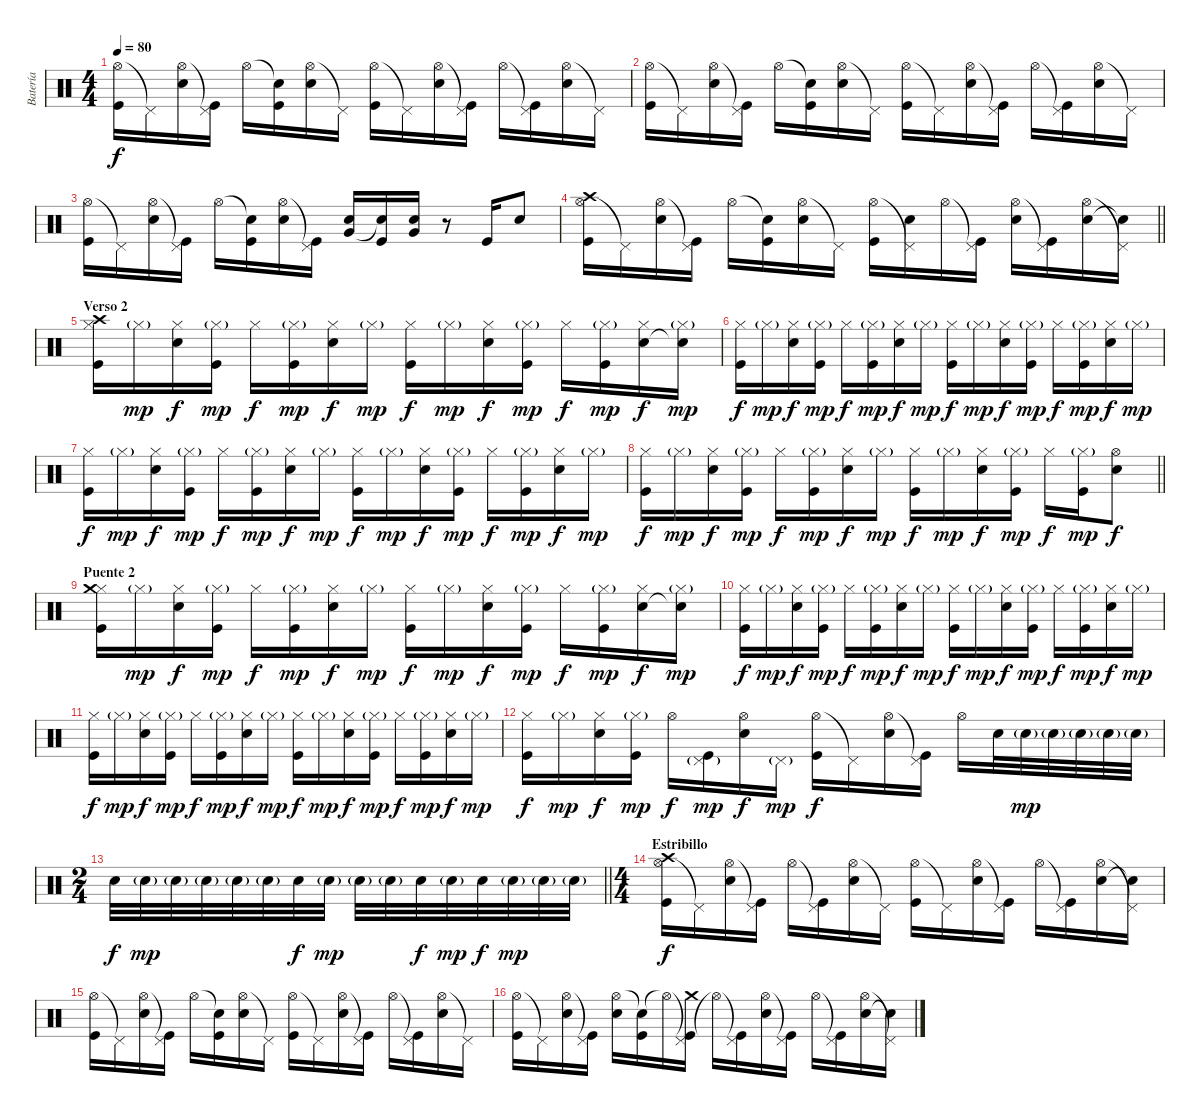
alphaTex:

\track ("Batería" "Batería") {instrument percussion}
\staff {score}
\articulation defaults
\ts (4 4)
\tempo 80
\clef neutral
\ks c
("Hi-Hat (open)" "Kick (hit)").16{dy f} "Pedal Hi-Hat (hit)"{t}.16 ("Hi-Hat (open)" "Electric Snare (hit)").16 ("Pedal Hi-Hat (hit)"{t} "Kick (hit)").16 "Hi-Hat (open)".16 ("Snare (hit)"{t} "Kick (hit)").16 ("Hi-Hat (open)" "Electric Snare (hit)").16 "Pedal Hi-Hat (hit)"{t}.16 ("Hi-Hat (open)" "Kick (hit)").16 "Pedal Hi-Hat (hit)"{t}.16 ("Hi-Hat (open)" "Electric Snare (hit)").16 ("Pedal Hi-Hat (hit)"{t} "Kick (hit)").16 "Hi-Hat (open)".16 ("Pedal Hi-Hat (hit)"{t} "Kick (hit)").16 ("Hi-Hat (open)" "Electric Snare (hit)").16 "Pedal Hi-Hat (hit)"{t}.16 |
("Hi-Hat (open)" "Kick (hit)").16 "Pedal Hi-Hat (hit)"{t}.16 ("Hi-Hat (open)" "Electric Snare (hit)").16 ("Pedal Hi-Hat (hit)"{t} "Kick (hit)").16 "Hi-Hat (open)".16 ("Snare (hit)"{t} "Kick (hit)").16 ("Hi-Hat (open)" "Electric Snare (hit)").16 "Pedal Hi-Hat (hit)"{t}.16 ("Hi-Hat (open)" "Kick (hit)").16 "Pedal Hi-Hat (hit)"{t}.16 ("Hi-Hat (open)" "Electric Snare (hit)").16 ("Pedal Hi-Hat (hit)"{t} "Kick (hit)").16 "Hi-Hat (open)".16 ("Pedal Hi-Hat (hit)"{t} "Kick (hit)").16 ("Hi-Hat (open)" "Electric Snare (hit)").16 "Pedal Hi-Hat (hit)"{t}.16 |
("Hi-Hat (open)" "Kick (hit)").16 "Pedal Hi-Hat (hit)"{t}.16 ("Hi-Hat (open)" "Electric Snare (hit)").16 ("Pedal Hi-Hat (hit)"{t} "Kick (hit)").16 "Hi-Hat (open)".16 ("Snare (hit)"{t} "Kick (hit)").16 ("Hi-Hat (open)" "Electric Snare (hit)").16 ("Pedal Hi-Hat (hit)"{t} "Kick (hit)").16 ("Very Low Tom (hit)" "Electric Snare (hit)").16 ("Snare (hit)"{t} "Kick (hit)").16 ("Very Low Tom (hit)" "Electric Snare (hit)").16 r.8 "Kick (hit)".16 "Electric Snare (hit)".8 |
\barLineRight lightlight
("Hi-Hat (open)" "Kick (hit)" "Crash high (hit)").16 "Pedal Hi-Hat (hit)"{t}.16 ("Hi-Hat (open)" "Electric Snare (hit)").16 ("Pedal Hi-Hat (hit)"{t} "Kick (hit)").16 "Hi-Hat (open)".16 ("Snare (hit)"{t} "Kick (hit)").16 ("Hi-Hat (open)" "Electric Snare (hit)").16 "Pedal Hi-Hat (hit)"{t}.16 ("Hi-Hat (open)" "Kick (hit)").16 ("Pedal Hi-Hat (hit)"{t} "Electric Snare (hit)").16 "Hi-Hat (open)".16 ("Pedal Hi-Hat (hit)"{t} "Kick (hit)").16 ("Hi-Hat (open)" "Electric Snare (hit)").16 ("Pedal Hi-Hat (hit)"{t} "Kick (hit)").16 ("Hi-Hat (open)" "Electric Snare (hit)").16 ("Pedal Hi-Hat (hit)"{t} "Snare (hit)"{t}).16 |
\section ("" "Verso 2")
("Hi-Hat (closed)" "Kick (hit)" "Crash high (hit)").16 "Hi-Hat (closed)"{g}.16{dy mp} ("Hi-Hat (closed)" "Electric Snare (hit)").16{dy f} ("Hi-Hat (closed)"{g} "Kick (hit)").16{dy mp} "Hi-Hat (closed)".16{dy f} ("Hi-Hat (closed)"{g} "Kick (hit)").16{dy mp} ("Hi-Hat (closed)" "Electric Snare (hit)").16{dy f} "Hi-Hat (closed)"{g}.16{dy mp} ("Hi-Hat (closed)" "Kick (hit)").16{dy f} "Hi-Hat (closed)"{g}.16{dy mp} ("Hi-Hat (closed)" "Electric Snare (hit)").16{dy f} ("Hi-Hat (closed)"{g} "Kick (hit)").16{dy mp} "Hi-Hat (closed)".16{dy f} ("Hi-Hat (closed)"{g} "Kick (hit)").16{dy mp} ("Hi-Hat (closed)" "Electric Snare (hit)").16{dy f} ("Hi-Hat (closed)"{g} "Snare (hit)"{t}).16{dy mp} |
("Hi-Hat (closed)" "Kick (hit)").16{dy f} "Hi-Hat (closed)"{g}.16{dy mp} ("Hi-Hat (closed)" "Electric Snare (hit)").16{dy f} ("Hi-Hat (closed)"{g} "Kick (hit)").16{dy mp} "Hi-Hat (closed)".16{dy f} ("Hi-Hat (closed)"{g} "Kick (hit)").16{dy mp} ("Hi-Hat (closed)" "Electric Snare (hit)").16{dy f} "Hi-Hat (closed)"{g}.16{dy mp} ("Hi-Hat (closed)" "Kick (hit)").16{dy f} "Hi-Hat (closed)"{g}.16{dy mp} ("Hi-Hat (closed)" "Electric Snare (hit)").16{dy f} ("Hi-Hat (closed)"{g} "Kick (hit)").16{dy mp} "Hi-Hat (closed)".16{dy f} ("Hi-Hat (closed)"{g} "Kick (hit)").16{dy mp} ("Hi-Hat (closed)" "Electric Snare (hit)").16{dy f} "Hi-Hat (closed)"{g}.16{dy mp} |
("Hi-Hat (closed)" "Kick (hit)").16{dy f} "Hi-Hat (closed)"{g}.16{dy mp} ("Hi-Hat (closed)" "Electric Snare (hit)").16{dy f} ("Hi-Hat (closed)"{g} "Kick (hit)").16{dy mp} "Hi-Hat (closed)".16{dy f} ("Hi-Hat (closed)"{g} "Kick (hit)").16{dy mp} ("Hi-Hat (closed)" "Electric Snare (hit)").16{dy f} "Hi-Hat (closed)"{g}.16{dy mp} ("Hi-Hat (closed)" "Kick (hit)").16{dy f} "Hi-Hat (closed)"{g}.16{dy mp} ("Hi-Hat (closed)" "Electric Snare (hit)").16{dy f} ("Hi-Hat (closed)"{g} "Kick (hit)").16{dy mp} "Hi-Hat (closed)".16{dy f} ("Hi-Hat (closed)"{g} "Kick (hit)").16{dy mp} ("Hi-Hat (closed)" "Electric Snare (hit)").16{dy f} "Hi-Hat (closed)"{g}.16{dy mp} |
\barLineRight lightlight
("Hi-Hat (closed)" "Kick (hit)").16{dy f} "Hi-Hat (closed)"{g}.16{dy mp} ("Hi-Hat (closed)" "Electric Snare (hit)").16{dy f} ("Hi-Hat (closed)"{g} "Kick (hit)").16{dy mp} "Hi-Hat (closed)".16{dy f} ("Hi-Hat (closed)"{g} "Kick (hit)").16{dy mp} ("Hi-Hat (closed)" "Electric Snare (hit)").16{dy f} "Hi-Hat (closed)"{g}.16{dy mp} ("Hi-Hat (closed)" "Kick (hit)").16{dy f} "Hi-Hat (closed)"{g}.16{dy mp} ("Hi-Hat (closed)" "Electric Snare (hit)").16{dy f} ("Hi-Hat (closed)"{g} "Kick (hit)").16{dy mp} "Hi-Hat (closed)".16{dy f} ("Hi-Hat (closed)"{g} "Kick (hit)").16{dy mp} ("Hi-Hat (open)" "Electric Snare (hit)").8{dy f} |
\section ("" "Puente 2")
("Hi-Hat (closed)" "Kick (hit)" "Crash medium (hit)").16 "Hi-Hat (closed)"{g}.16{dy mp} ("Hi-Hat (closed)" "Electric Snare (hit)").16{dy f} ("Hi-Hat (closed)"{g} "Kick (hit)").16{dy mp} "Hi-Hat (closed)".16{dy f} ("Hi-Hat (closed)"{g} "Kick (hit)").16{dy mp} ("Hi-Hat (closed)" "Electric Snare (hit)").16{dy f} "Hi-Hat (closed)"{g}.16{dy mp} ("Hi-Hat (closed)" "Kick (hit)").16{dy f} "Hi-Hat (closed)"{g}.16{dy mp} ("Hi-Hat (closed)" "Electric Snare (hit)").16{dy f} ("Hi-Hat (closed)"{g} "Kick (hit)").16{dy mp} "Hi-Hat (closed)".16{dy f} ("Hi-Hat (closed)"{g} "Kick (hit)").16{dy mp} ("Hi-Hat (closed)" "Electric Snare (hit)").16{dy f} ("Hi-Hat (closed)"{g} "Snare (hit)"{t}).16{dy mp} |
("Hi-Hat (closed)" "Kick (hit)").16{dy f} "Hi-Hat (closed)"{g}.16{dy mp} ("Hi-Hat (closed)" "Electric Snare (hit)").16{dy f} ("Hi-Hat (closed)"{g} "Kick (hit)").16{dy mp} "Hi-Hat (closed)".16{dy f} ("Hi-Hat (closed)"{g} "Kick (hit)").16{dy mp} ("Hi-Hat (closed)" "Electric Snare (hit)").16{dy f} "Hi-Hat (closed)"{g}.16{dy mp} ("Hi-Hat (closed)" "Kick (hit)").16{dy f} "Hi-Hat (closed)"{g}.16{dy mp} ("Hi-Hat (closed)" "Electric Snare (hit)").16{dy f} ("Hi-Hat (closed)"{g} "Kick (hit)").16{dy mp} "Hi-Hat (closed)".16{dy f} ("Hi-Hat (closed)"{g} "Kick (hit)").16{dy mp} ("Hi-Hat (closed)" "Electric Snare (hit)").16{dy f} "Hi-Hat (closed)"{g}.16{dy mp} |
("Hi-Hat (closed)" "Kick (hit)").16{dy f} "Hi-Hat (closed)"{g}.16{dy mp} ("Hi-Hat (closed)" "Electric Snare (hit)").16{dy f} ("Hi-Hat (closed)"{g} "Kick (hit)").16{dy mp} "Hi-Hat (closed)".16{dy f} ("Hi-Hat (closed)"{g} "Kick (hit)").16{dy mp} ("Hi-Hat (closed)" "Electric Snare (hit)").16{dy f} "Hi-Hat (closed)"{g}.16{dy mp} ("Hi-Hat (closed)" "Kick (hit)").16{dy f} "Hi-Hat (closed)"{g}.16{dy mp} ("Hi-Hat (closed)" "Electric Snare (hit)").16{dy f} ("Hi-Hat (closed)"{g} "Kick (hit)").16{dy mp} "Hi-Hat (closed)".16{dy f} ("Hi-Hat (closed)"{g} "Kick (hit)").16{dy mp} ("Hi-Hat (closed)" "Electric Snare (hit)").16{dy f} "Hi-Hat (closed)"{g}.16{dy mp} |
("Hi-Hat (closed)" "Kick (hit)").16{dy f} "Hi-Hat (closed)"{g}.16{dy mp} ("Hi-Hat (closed)" "Electric Snare (hit)").16{dy f} ("Hi-Hat (closed)"{g} "Kick (hit)").16{dy mp} "Hi-Hat (open)".16{dy f} ("Pedal Hi-Hat (hit)"{g} "Kick (hit)").16{dy mp} ("Hi-Hat (open)" "Electric Snare (hit)").16{dy f} "Pedal Hi-Hat (hit)"{g}.16{dy mp} ("Hi-Hat (open)" "Kick (hit)").16{dy f} "Pedal Hi-Hat (hit)"{t}.16 ("Hi-Hat (open)" "Electric Snare (hit)").16 ("Pedal Hi-Hat (hit)"{t} "Kick (hit)").16 "Hi-Hat (open)".16 "Electric Snare (hit)".32 "Electric Snare (hit)"{g}.32{dy mp} "Electric Snare (hit)"{g}.32 "Electric Snare (hit)"{g}.32 "Electric Snare (hit)"{g}.32 "Electric Snare (hit)"{g}.32 |
\ts (2 4)
\barLineRight lightlight "Electric Snare (hit)".32{dy f} "Electric Snare (hit)"{g}.32{dy mp} "Electric Snare (hit)"{g}.32 "Electric Snare (hit)"{g}.32 "Electric Snare (hit)"{g}.32 "Electric Snare (hit)"{g}.32 "Electric Snare (hit)".32{dy f} "Electric Snare (hit)"{g}.32{dy mp} "Electric Snare (hit)"{g}.32 "Electric Snare (hit)"{g}.32 "Electric Snare (hit)".32{dy f} "Electric Snare (hit)"{g}.32{dy mp} "Electric Snare (hit)".32{dy f} "Electric Snare (hit)"{g}.32{dy mp} "Electric Snare (hit)"{g}.32 "Electric Snare (hit)"{g}.32
|
\ts (4 4)
\section ("" "Estribillo")
("Hi-Hat (open)" "Kick (hit)" "Crash high (hit)").16{dy f} "Pedal Hi-Hat (hit)"{t}.16 ("Hi-Hat (open)" "Electric Snare (hit)").16 ("Pedal Hi-Hat (hit)"{t} "Kick (hit)").16 "Hi-Hat (open)".16 ("Pedal Hi-Hat (hit)"{t} "Kick (hit)").16 ("Hi-Hat (open)" "Electric Snare (hit)").16 "Pedal Hi-Hat (hit)"{t}.16 ("Hi-Hat (open)" "Kick (hit)").16 "Pedal Hi-Hat (hit)"{t}.16 ("Hi-Hat (open)" "Electric Snare (hit)").16 ("Pedal Hi-Hat (hit)"{t} "Kick (hit)").16 "Hi-Hat (open)".16 ("Pedal Hi-Hat (hit)"{t} "Kick (hit)").16 ("Hi-Hat (open)" "Electric Snare (hit)").16 ("Pedal Hi-Hat (hit)"{t} "Snare (hit)"{t}).16 |
("Hi-Hat (open)" "Kick (hit)").16 "Pedal Hi-Hat (hit)"{t}.16 ("Hi-Hat (open)" "Electric Snare (hit)").16 ("Pedal Hi-Hat (hit)"{t} "Kick (hit)").16 "Hi-Hat (open)".16 ("Snare (hit)"{t} "Kick (hit)").16 ("Hi-Hat (open)" "Electric Snare (hit)").16 "Pedal Hi-Hat (hit)"{t}.16 ("Hi-Hat (open)" "Kick (hit)").16 "Pedal Hi-Hat (hit)"{t}.16 ("Hi-Hat (open)" "Electric Snare (hit)").16 ("Pedal Hi-Hat (hit)"{t} "Kick (hit)").16 "Hi-Hat (open)".16 ("Pedal Hi-Hat (hit)"{t} "Kick (hit)").16 ("Hi-Hat (open)" "Electric Snare (hit)").16 "Pedal Hi-Hat (hit)"{t}.16 |
("Hi-Hat (open)" "Kick (hit)").16 "Pedal Hi-Hat (hit)"{t}.16 ("Hi-Hat (open)" "Electric Snare (hit)").16 ("Pedal Hi-Hat (hit)"{t} "Kick (hit)").16 ("Hi-Hat (open)" "Electric Snare (hit)").16 ("Snare (hit)"{t} "Kick (hit)").16 "Hi-Hat (open)"{t}.16 ("Pedal Hi-Hat (hit)"{t} "Kick (hit)" "Crash medium (hit)").16 "Hi-Hat (open)"{t}.16 ("Pedal Hi-Hat (hit)"{t} "Kick (hit)").16 ("Hi-Hat (open)" "Electric Snare (hit)").16 ("Pedal Hi-Hat (hit)"{t} "Kick (hit)").16 "Hi-Hat (open)".16 ("Pedal Hi-Hat (hit)"{t} "Kick (hit)").16 ("Hi-Hat (open)" "Electric Snare (hit)").16 ("Pedal Hi-Hat (hit)"{t} "Snare (hit)"{t}).16
